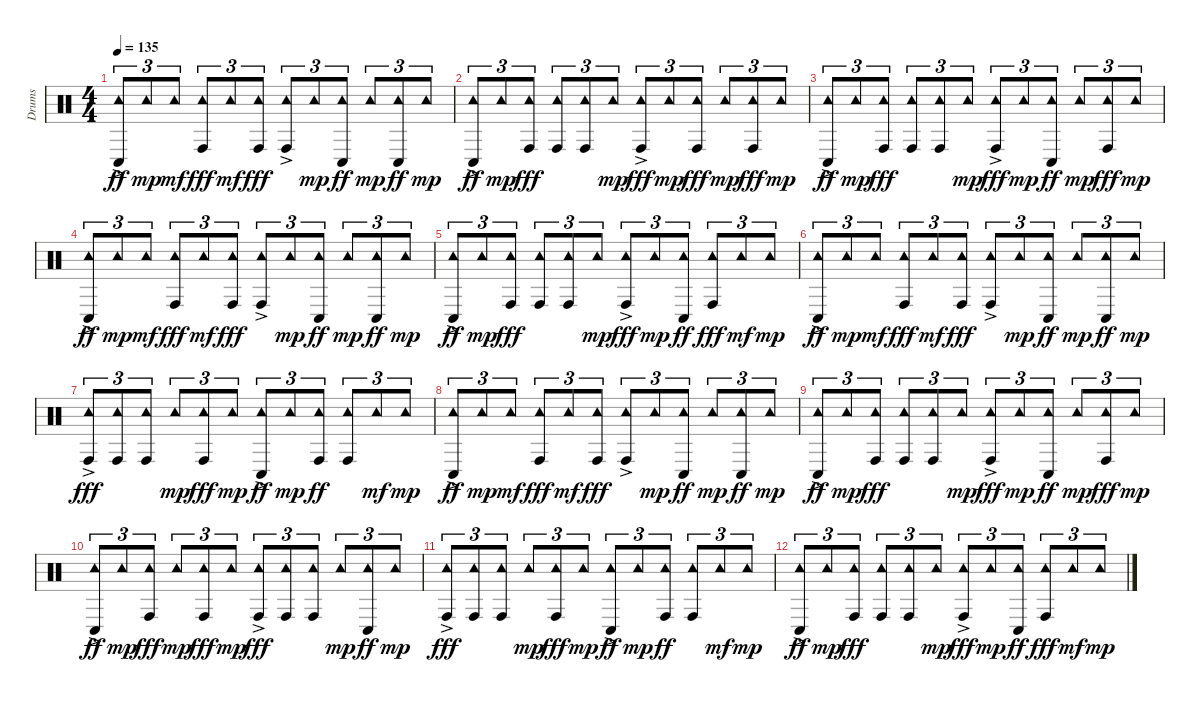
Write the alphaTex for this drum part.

\track ("Drums" "Drums") {instrument percussion}
\staff {score}
\articulation defaults
\ts (4 4)
\tempo 135
\clef neutral
\ks c
("Tambourine (hit)"{ac} "Conga low (hit)").8{tu (3 2) dy ff} "Tambourine (hit)".8{tu (3 2) dy mp} "Tambourine (hit)".8{tu (3 2) dy mf} ("Tambourine (hit)" "Conga high (hit)").8{tu (3 2) dy fff} "Tambourine (hit)".8{tu (3 2) dy mf} ("Tambourine (hit)" "Conga high (hit)").8{tu (3 2) dy fff} ("Tambourine (hit)"{ac} "Conga high (hit)").8{tu (3 2)} "Tambourine (hit)".8{tu (3 2) dy mp} ("Tambourine (hit)" "Conga low (hit)").8{tu (3 2) dy ff} "Tambourine (hit)".8{tu (3 2) dy mp} ("Tambourine (hit)" "Conga low (hit)").8{tu (3 2) dy ff} "Tambourine (hit)".8{tu (3 2) dy mp} |
("Tambourine (hit)"{ac} "Conga low (hit)").8{tu (3 2) dy ff} "Tambourine (hit)".8{tu (3 2) dy mp} ("Tambourine (hit)" "Conga high (hit)").8{tu (3 2) dy fff} ("Tambourine (hit)" "Conga high (hit)").8{tu (3 2)} ("Tambourine (hit)" "Conga high (hit)").8{tu (3 2)} "Tambourine (hit)".8{tu (3 2) dy mp} ("Tambourine (hit)"{ac} "Conga high (hit)").8{tu (3 2) dy fff} "Tambourine (hit)".8{tu (3 2) dy mp} ("Tambourine (hit)" "Conga high (hit)").8{tu (3 2) dy fff} "Tambourine (hit)".8{tu (3 2) dy mp} ("Tambourine (hit)" "Conga high (hit)").8{tu (3 2) dy fff} "Tambourine (hit)".8{tu (3 2) dy mp} |
("Tambourine (hit)"{ac} "Conga low (hit)").8{tu (3 2) dy ff} "Tambourine (hit)".8{tu (3 2) dy mp} ("Tambourine (hit)" "Conga high (hit)").8{tu (3 2) dy fff} ("Tambourine (hit)" "Conga high (hit)").8{tu (3 2)} ("Tambourine (hit)" "Conga high (hit)").8{tu (3 2)} "Tambourine (hit)".8{tu (3 2) dy mp} ("Tambourine (hit)"{ac} "Conga high (hit)").8{tu (3 2) dy fff} "Tambourine (hit)".8{tu (3 2) dy mp} ("Tambourine (hit)" "Conga low (hit)").8{tu (3 2) dy ff} "Tambourine (hit)".8{tu (3 2) dy mp} ("Tambourine (hit)" "Conga high (hit)").8{tu (3 2) dy fff} "Tambourine (hit)".8{tu (3 2) dy mp} |
("Tambourine (hit)"{ac} "Conga low (hit)").8{tu (3 2) dy ff} "Tambourine (hit)".8{tu (3 2) dy mp} "Tambourine (hit)".8{tu (3 2) dy mf} ("Tambourine (hit)" "Conga high (hit)").8{tu (3 2) dy fff} "Tambourine (hit)".8{tu (3 2) dy mf} ("Tambourine (hit)" "Conga high (hit)").8{tu (3 2) dy fff} ("Tambourine (hit)"{ac} "Conga high (hit)").8{tu (3 2)} "Tambourine (hit)".8{tu (3 2) dy mp} ("Tambourine (hit)" "Conga low (hit)").8{tu (3 2) dy ff} "Tambourine (hit)".8{tu (3 2) dy mp} ("Tambourine (hit)" "Conga low (hit)").8{tu (3 2) dy ff} "Tambourine (hit)".8{tu (3 2) dy mp} |
("Tambourine (hit)"{ac} "Conga low (hit)").8{tu (3 2) dy ff} "Tambourine (hit)".8{tu (3 2) dy mp} ("Tambourine (hit)" "Conga high (hit)").8{tu (3 2) dy fff} ("Tambourine (hit)" "Conga high (hit)").8{tu (3 2)} ("Tambourine (hit)" "Conga high (hit)").8{tu (3 2)} "Tambourine (hit)".8{tu (3 2) dy mp} ("Tambourine (hit)"{ac} "Conga high (hit)").8{tu (3 2) dy fff} "Tambourine (hit)".8{tu (3 2) dy mp} ("Tambourine (hit)" "Conga low (hit)").8{tu (3 2) dy ff} ("Tambourine (hit)" "Conga high (hit)").8{tu (3 2) dy fff} "Tambourine (hit)".8{tu (3 2) dy mf} "Tambourine (hit)".8{tu (3 2) dy mp} |
("Tambourine (hit)"{ac} "Conga low (hit)").8{tu (3 2) dy ff} "Tambourine (hit)".8{tu (3 2) dy mp} "Tambourine (hit)".8{tu (3 2) dy mf} ("Tambourine (hit)" "Conga high (hit)").8{tu (3 2) dy fff} "Tambourine (hit)".8{tu (3 2) dy mf} ("Tambourine (hit)" "Conga high (hit)").8{tu (3 2) dy fff} ("Tambourine (hit)"{ac} "Conga high (hit)").8{tu (3 2)} "Tambourine (hit)".8{tu (3 2) dy mp} ("Tambourine (hit)" "Conga low (hit)").8{tu (3 2) dy ff} "Tambourine (hit)".8{tu (3 2) dy mp} ("Tambourine (hit)" "Conga low (hit)").8{tu (3 2) dy ff} "Tambourine (hit)".8{tu (3 2) dy mp} |
("Tambourine (hit)"{ac} "Conga high (hit)").8{tu (3 2) dy fff} ("Tambourine (hit)" "Conga high (hit)").8{tu (3 2)} ("Tambourine (hit)" "Conga high (hit)").8{tu (3 2)} "Tambourine (hit)".8{tu (3 2) dy mp} ("Tambourine (hit)" "Conga high (hit)").8{tu (3 2) dy fff} "Tambourine (hit)".8{tu (3 2) dy mp} ("Tambourine (hit)"{ac} "Conga low (hit)").8{tu (3 2) dy ff} "Tambourine (hit)".8{tu (3 2) dy mp} ("Tambourine (hit)" "Conga high (hit)").8{tu (3 2) dy ff} ("Tambourine (hit)" "Conga high (hit)").8{tu (3 2)} "Tambourine (hit)".8{tu (3 2) dy mf} "Tambourine (hit)".8{tu (3 2) dy mp} |
("Tambourine (hit)"{ac} "Conga low (hit)").8{tu (3 2) dy ff} "Tambourine (hit)".8{tu (3 2) dy mp} "Tambourine (hit)".8{tu (3 2) dy mf} ("Tambourine (hit)" "Conga high (hit)").8{tu (3 2) dy fff} "Tambourine (hit)".8{tu (3 2) dy mf} ("Tambourine (hit)" "Conga high (hit)").8{tu (3 2) dy fff} ("Tambourine (hit)"{ac} "Conga high (hit)").8{tu (3 2)} "Tambourine (hit)".8{tu (3 2) dy mp} ("Tambourine (hit)" "Conga low (hit)").8{tu (3 2) dy ff} "Tambourine (hit)".8{tu (3 2) dy mp} ("Tambourine (hit)" "Conga low (hit)").8{tu (3 2) dy ff} "Tambourine (hit)".8{tu (3 2) dy mp} |
("Tambourine (hit)"{ac} "Conga low (hit)").8{tu (3 2) dy ff} "Tambourine (hit)".8{tu (3 2) dy mp} ("Tambourine (hit)" "Conga high (hit)").8{tu (3 2) dy fff} ("Tambourine (hit)" "Conga high (hit)").8{tu (3 2)} ("Tambourine (hit)" "Conga high (hit)").8{tu (3 2)} "Tambourine (hit)".8{tu (3 2) dy mp} ("Tambourine (hit)"{ac} "Conga high (hit)").8{tu (3 2) dy fff} "Tambourine (hit)".8{tu (3 2) dy mp} ("Tambourine (hit)" "Conga low (hit)").8{tu (3 2) dy ff} "Tambourine (hit)".8{tu (3 2) dy mp} ("Tambourine (hit)" "Conga high (hit)").8{tu (3 2) dy fff} "Tambourine (hit)".8{tu (3 2) dy mp} |
("Tambourine (hit)"{ac} "Conga low (hit)").8{tu (3 2) dy ff} "Tambourine (hit)".8{tu (3 2) dy mp} ("Tambourine (hit)" "Conga high (hit)").8{tu (3 2) dy fff} "Tambourine (hit)".8{tu (3 2) dy mp} ("Tambourine (hit)" "Conga high (hit)").8{tu (3 2) dy fff} "Tambourine (hit)".8{tu (3 2) dy mp} ("Tambourine (hit)"{ac} "Conga high (hit)").8{tu (3 2) dy fff} ("Tambourine (hit)" "Conga high (hit)").8{tu (3 2)} ("Tambourine (hit)" "Conga high (hit)").8{tu (3 2)} "Tambourine (hit)".8{tu (3 2) dy mp} ("Tambourine (hit)" "Conga low (hit)").8{tu (3 2) dy ff} "Tambourine (hit)".8{tu (3 2) dy mp} |
("Tambourine (hit)"{ac} "Conga high (hit)").8{tu (3 2) dy fff} ("Tambourine (hit)" "Conga high (hit)").8{tu (3 2)} ("Tambourine (hit)" "Conga high (hit)").8{tu (3 2)} "Tambourine (hit)".8{tu (3 2) dy mp} ("Tambourine (hit)" "Conga high (hit)").8{tu (3 2) dy fff} "Tambourine (hit)".8{tu (3 2) dy mp} ("Tambourine (hit)"{ac} "Conga low (hit)").8{tu (3 2) dy ff} "Tambourine (hit)".8{tu (3 2) dy mp} ("Tambourine (hit)" "Conga high (hit)").8{tu (3 2) dy ff} ("Tambourine (hit)" "Conga high (hit)").8{tu (3 2)} "Tambourine (hit)".8{tu (3 2) dy mf} "Tambourine (hit)".8{tu (3 2) dy mp} |
("Tambourine (hit)"{ac} "Conga low (hit)").8{tu (3 2) dy ff} "Tambourine (hit)".8{tu (3 2) dy mp} ("Tambourine (hit)" "Conga high (hit)").8{tu (3 2) dy fff} ("Tambourine (hit)" "Conga high (hit)").8{tu (3 2)} ("Tambourine (hit)" "Conga high (hit)").8{tu (3 2)} "Tambourine (hit)".8{tu (3 2) dy mp} ("Tambourine (hit)"{ac} "Conga high (hit)").8{tu (3 2) dy fff} "Tambourine (hit)".8{tu (3 2) dy mp} ("Tambourine (hit)" "Conga low (hit)").8{tu (3 2) dy ff} ("Tambourine (hit)" "Conga high (hit)").8{tu (3 2) dy fff} "Tambourine (hit)".8{tu (3 2) dy mf} "Tambourine (hit)".8{tu (3 2) dy mp}
